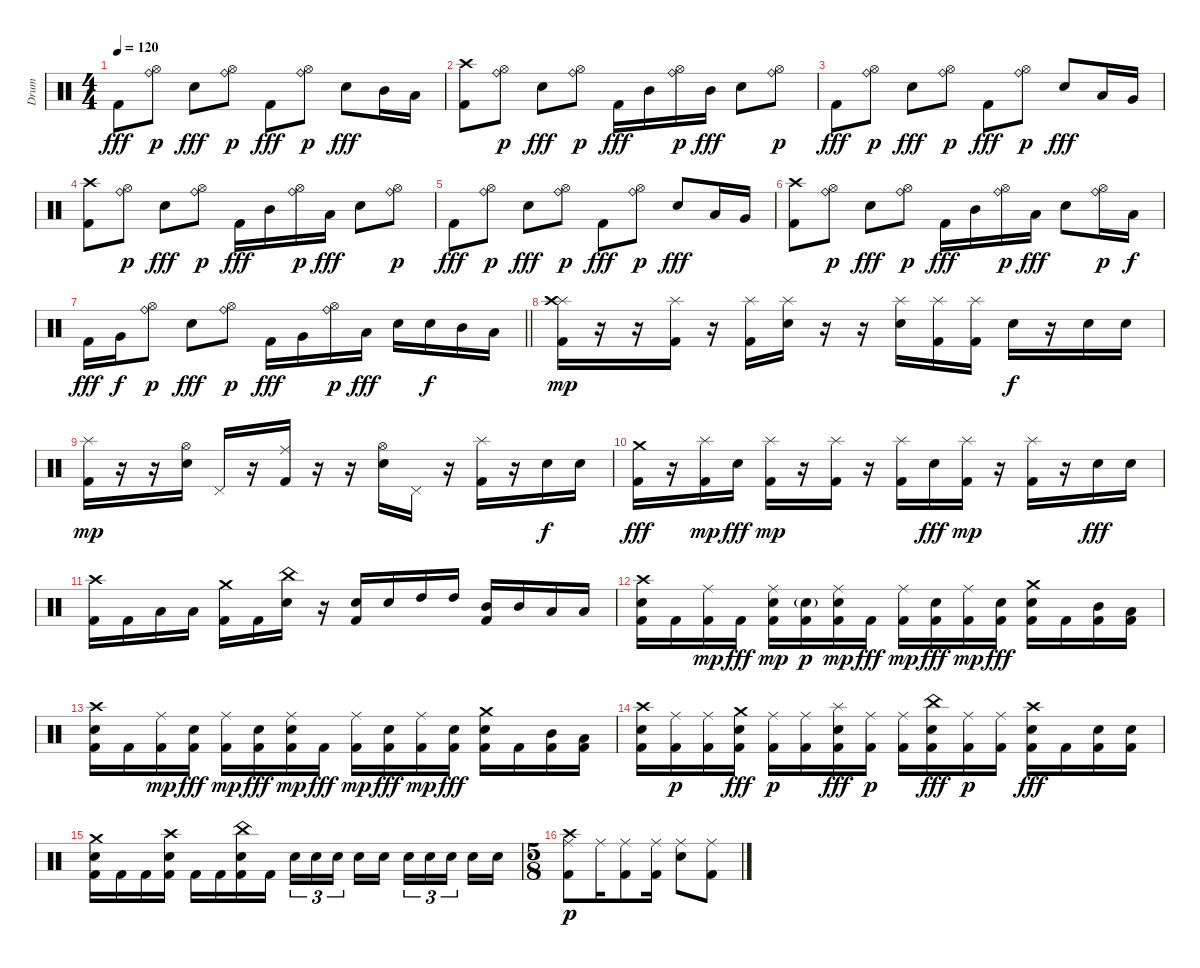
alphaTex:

\track ("Drum" "Drum") {instrument percussion}
\staff {score}
\articulation defaults
\ts (4 4)
\tempo 120
\clef neutral
\ks c "Kick (hit) 2".8{dy fff}
("Ride (bell)" "Hi-Hat (open)").8{dy p} "Electric Snare (hit)".8{dy fff} ("Ride (bell)" "Hi-Hat (open)").8{dy p} "Kick (hit) 2".8{dy fff} ("Ride (bell)" "Hi-Hat (open)").8{dy p} "Electric Snare (hit)".8{dy fff} "Mid Tom (hit)".16 "Low Tom (hit)".16 |
("Kick (hit) 2" "Crash high (hit)").8 ("Ride (bell)" "Hi-Hat (open)").8{dy p} "Electric Snare (hit)".8{dy fff} ("Ride (bell)" "Hi-Hat (open)").8{dy p} "Kick (hit) 2".16{dy fff} "Mid Tom (hit)".16 ("Ride (bell)" "Hi-Hat (open)").16{dy p} "Mid Tom (hit)".16{dy fff} "Electric Snare (hit)".8 ("Ride (bell)" "Hi-Hat (open)").8{dy p} |
"Kick (hit) 2".8{dy fff} ("Ride (bell)" "Hi-Hat (open)").8{dy p} "Electric Snare (hit)".8{dy fff} ("Ride (bell)" "Hi-Hat (open)").8{dy p} "Kick (hit) 2".8{dy fff} ("Ride (bell)" "Hi-Hat (open)").8{dy p} "Electric Snare (hit)".8{dy fff} "Low Tom (hit)".16 "Very Low Tom (hit)".16 |
("Kick (hit) 2" "Crash high (hit)").8 ("Ride (bell)" "Hi-Hat (open)").8{dy p} "Electric Snare (hit)".8{dy fff} ("Ride (bell)" "Hi-Hat (open)").8{dy p} "Kick (hit) 2".16{dy fff} "Mid Tom (hit)".16 ("Ride (bell)" "Hi-Hat (open)").16{dy p} "Low Tom (hit)".16{dy fff} "Electric Snare (hit)".8 ("Ride (bell)" "Hi-Hat (open)").8{dy p} |
"Kick (hit) 2".8{dy fff} ("Ride (bell)" "Hi-Hat (open)").8{dy p} "Electric Snare (hit)".8{dy fff} ("Ride (bell)" "Hi-Hat (open)").8{dy p} "Kick (hit) 2".8{dy fff} ("Ride (bell)" "Hi-Hat (open)").8{dy p} "Electric Snare (hit)".8{dy fff} "Low Tom (hit)".16 "Very Low Tom (hit)".16 |
("Kick (hit) 2" "Crash high (hit)").8 ("Ride (bell)" "Hi-Hat (open)").8{dy p} "Electric Snare (hit)".8{dy fff} ("Ride (bell)" "Hi-Hat (open)").8{dy p} "Kick (hit) 2".16{dy fff} "Mid Tom (hit)".16 ("Ride (bell)" "Hi-Hat (open)").16{dy p} "Low Tom (hit)".16{dy fff} "Electric Snare (hit)".8 ("Ride (bell)" "Hi-Hat (open)").16{dy p} "Low Tom (hit)".16{dy f} |
\barLineRight lightlight "Kick (hit) 2".16{dy fff} "Very Low Tom (hit)".16{dy f}
("Ride (bell)" "Hi-Hat (open)").8{dy p} "Electric Snare (hit)".8{dy fff} ("Ride (bell)" "Hi-Hat (open)").8{dy p} "Kick (hit) 2".16{dy fff} "Very Low Tom (hit)".16 ("Ride (bell)" "Hi-Hat (open)").16{dy p} "Low Floor Tom (hit)".16{dy fff} "Electric Snare (hit)".16 "Electric Snare (hit)".16{dy f} "Mid Tom (hit)".16 "Low Tom (hit)".16 |
("Kick (hit) 2" "Splash (hit)" "Crash high (hit)").16{dy mp} r.16 r.16 ("Kick (hit) 2" "Splash (hit)").16 r.16 ("Kick (hit) 2" "Splash (hit)").16 ("Electric Snare (hit)" "Splash (hit)").16 r.16 r.16 ("Electric Snare (hit)" "Splash (hit)").16 ("Kick (hit) 2" "Splash (hit)").16 ("Kick (hit) 2" "Splash (hit)").16 "Electric Snare (hit)".16{dy f} r.16 "Electric Snare (hit)".16 "Electric Snare (hit)".16 |
("Kick (hit) 2" "Splash (hit)").16{dy mp} r.16 r.16 ("Electric Snare (hit)" "Hi-Hat (open)").16 "Pedal Hi-Hat (hit)".16 r.16 ("Kick (hit) 2" "Ride (middle)").16 r.16 r.16 ("Electric Snare (hit)" "Hi-Hat (open)").16 "Pedal Hi-Hat (hit)".16 r.16 ("Kick (hit) 2" "Splash (hit)").16 r.16 "Electric Snare (hit)".16{dy f} "Electric Snare (hit)".16 |
("Kick (hit) 2" "Crash medium (hit)").16{dy fff} r.16 ("Kick (hit) 2" "Splash (hit)").16{dy mp} "Electric Snare (hit)".16{dy fff} ("Kick (hit) 2" "Splash (hit)").16{dy mp} r.16 ("Kick (hit) 2" "Splash (hit)").16 r.16 ("Kick (hit) 2" "Splash (hit)").16 "Electric Snare (hit)".16{dy fff} ("Kick (hit) 2" "Splash (hit)").16{dy mp} r.16 ("Kick (hit) 2" "Splash (hit)").16 r.16 "Electric Snare (hit)".16{dy fff} "Electric Snare (hit)".16 |
("Kick (hit) 2" "Crash high (hit)").16 "Kick (hit) 2".16 "Low Tom (hit)".16 "Low Tom (hit)".16 ("Kick (hit) 2" "Crash medium (hit)").16 "Kick (hit) 2".16 ("Electric Snare (hit)" "China (hit)").16 r.16 ("Kick (hit) 2" "Electric Snare (hit)").16 "Electric Snare (hit)".16 "High Tom (hit)".16 "High Tom (hit)".16 ("Kick (hit) 2" "Mid Tom (hit)").16 "Mid Tom (hit)".16 "Low Tom (hit)".16 "Low Tom (hit)".16 |
("Kick (hit) 2" "Electric Snare (hit)" "Crash high (hit)").16 "Kick (hit) 2".16 ("Kick (hit) 2" "Ride (middle)").16{dy mp} "Kick (hit) 2".16{dy fff} ("Kick (hit) 2" "Electric Snare (hit)" "Ride (middle)").16{dy mp} ("Kick (hit) 2" "Electric Snare (hit)"{g}).16{dy p} ("Kick (hit) 2" "Electric Snare (hit)" "Ride (middle)").16{dy mp} "Kick (hit) 2".16{dy fff} ("Kick (hit) 2" "Ride (middle)").16{dy mp} ("Kick (hit) 2" "Electric Snare (hit)").16{dy fff} ("Kick (hit) 2" "Ride (middle)").16{dy mp} ("Kick (hit) 2" "Electric Snare (hit)").16{dy fff} ("Kick (hit) 2" "Electric Snare (hit)" "Crash medium (hit)").16 "Kick (hit) 2".16 ("Kick (hit) 2" "Mid Tom (hit)").16 ("Kick (hit) 2" "Low Tom (hit)").16 |
("Kick (hit) 2" "Electric Snare (hit)" "Crash high (hit)").16 "Kick (hit) 2".16 ("Kick (hit) 2" "Ride (middle)").16{dy mp} ("Kick (hit) 2" "Electric Snare (hit)").16{dy fff} ("Kick (hit) 2" "Ride (middle)").16{dy mp} ("Kick (hit) 2" "Electric Snare (hit)").16{dy fff} ("Kick (hit) 2" "Electric Snare (hit)" "Ride (middle)").16{dy mp} "Kick (hit) 2".16{dy fff} ("Kick (hit) 2" "Ride (middle)").16{dy mp} ("Kick (hit) 2" "Electric Snare (hit)").16{dy fff} ("Kick (hit) 2" "Ride (middle)").16{dy mp} ("Kick (hit) 2" "Electric Snare (hit)").16{dy fff} ("Kick (hit) 2" "Electric Snare (hit)" "Crash medium (hit)").16 "Kick (hit) 2".16 ("Kick (hit) 2" "Mid Tom (hit)").16 ("Kick (hit) 2" "Low Tom (hit)").16 |
("Kick (hit) 2" "Electric Snare (hit)" "Crash high (hit)").16 ("Kick (hit) 2" "Ride (middle)").16{dy p} ("Kick (hit) 2" "Ride (middle)").16 ("Kick (hit) 2" "Electric Snare (hit)" "Crash medium (hit)").16{dy fff} ("Kick (hit) 2" "Ride (middle)").16{dy p} ("Kick (hit) 2" "Ride (middle)").16 ("Kick (hit) 2" "Electric Snare (hit)" "Splash (hit)").16{dy fff} ("Kick (hit) 2" "Ride (middle)").16{dy p} ("Kick (hit) 2" "Ride (middle)").16 ("Kick (hit) 2" "Electric Snare (hit)" "China (hit)").16{dy fff} ("Kick (hit) 2" "Ride (middle)").16{dy p} ("Kick (hit) 2" "Ride (middle)").16 ("Kick (hit) 2" "Electric Snare (hit)" "Crash high (hit)").16{dy fff} "Kick (hit) 2".16 ("Kick (hit) 2" "Electric Snare (hit)").16 ("Kick (hit) 2" "Electric Snare (hit)").16 |
("Kick (hit) 2" "Electric Snare (hit)" "Crash medium (hit)").16 "Kick (hit) 2".16 "Kick (hit) 2".16 ("Kick (hit) 2" "Electric Snare (hit)" "Crash high (hit)").16 "Kick (hit) 2".16 "Kick (hit) 2".16 ("Kick (hit) 2" "Electric Snare (hit)" "China (hit)").16 "Kick (hit) 2".16 "Electric Snare (hit)".16{tu (3 2)} "Electric Snare (hit)".16{tu (3 2)} "Electric Snare (hit)".16{tu (3 2) beam splitsecondary} "Electric Snare (hit)".16 "Electric Snare (hit)".16 "Electric Snare (hit)".16{tu (3 2)} "Electric Snare (hit)".16{tu (3 2)} "Electric Snare (hit)".16{tu (3 2) beam splitsecondary} "Electric Snare (hit)".16 "Electric Snare (hit)".16 |
\ts (5 8)
("Kick (hit) 2" "Ride (middle)" "Crash high (hit)").8{dy p} "Ride (middle)".16 ("Kick (hit) 2" "Ride (middle)").8 ("Kick (hit) 2" "Ride (middle)").16 ("Electric Snare (hit)" "Ride (middle)").8 ("Kick (hit) 2" "Ride (middle)").8
